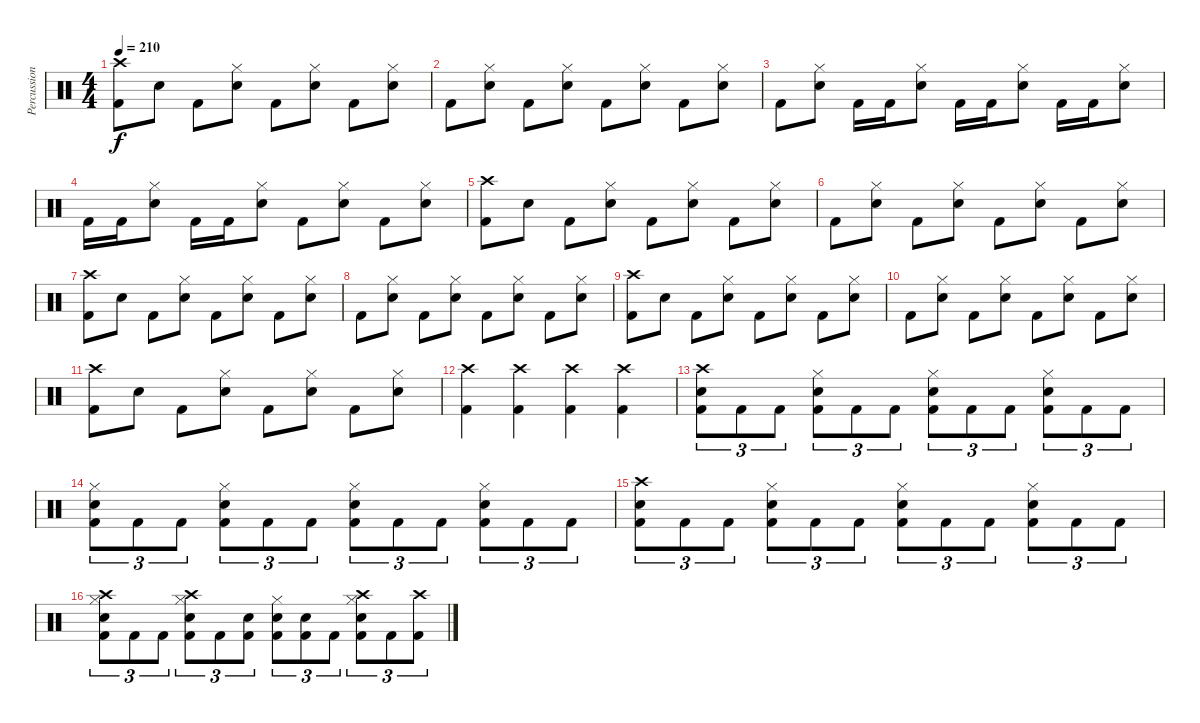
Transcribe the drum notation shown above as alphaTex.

\track ("Percussion" "Percussion") {instrument percussion}
\staff {score}
\articulation defaults
\ts (4 4)
\tempo 210
\clef neutral
\ks c
("Crash high (hit)" "Kick (hit) 2").8{dy f} "Electric Snare (hit)".8 "Kick (hit) 2".8 ("Hi-Hat (closed)" "Electric Snare (hit)").8 "Kick (hit) 2".8 ("Hi-Hat (closed)" "Electric Snare (hit)").8 "Kick (hit) 2".8 ("Hi-Hat (closed)" "Electric Snare (hit)").8 |
"Kick (hit) 2".8 ("Hi-Hat (closed)" "Electric Snare (hit)").8 "Kick (hit) 2".8 ("Hi-Hat (closed)" "Electric Snare (hit)").8 "Kick (hit) 2".8 ("Hi-Hat (closed)" "Electric Snare (hit)").8 "Kick (hit) 2".8 ("Hi-Hat (closed)" "Electric Snare (hit)").8 |
"Kick (hit) 2".8 ("Hi-Hat (closed)" "Electric Snare (hit)").8 "Kick (hit) 2".16 "Kick (hit) 2".16 ("Hi-Hat (closed)" "Electric Snare (hit)").8 "Kick (hit) 2".16 "Kick (hit) 2".16 ("Hi-Hat (closed)" "Electric Snare (hit)").8 "Kick (hit) 2".16 "Kick (hit) 2".16 ("Hi-Hat (closed)" "Electric Snare (hit)").8 |
"Kick (hit) 2".16 "Kick (hit) 2".16 ("Hi-Hat (closed)" "Electric Snare (hit)").8 "Kick (hit) 2".16 "Kick (hit) 2".16 ("Hi-Hat (closed)" "Electric Snare (hit)").8 "Kick (hit) 2".8 ("Hi-Hat (closed)" "Electric Snare (hit)").8 "Kick (hit) 2".8 ("Hi-Hat (closed)" "Electric Snare (hit)").8 |
("Crash high (hit)" "Kick (hit) 2").8 "Electric Snare (hit)".8 "Kick (hit) 2".8 ("Hi-Hat (closed)" "Electric Snare (hit)").8 "Kick (hit) 2".8 ("Hi-Hat (closed)" "Electric Snare (hit)").8 "Kick (hit) 2".8 ("Hi-Hat (closed)" "Electric Snare (hit)").8 |
"Kick (hit) 2".8 ("Hi-Hat (closed)" "Electric Snare (hit)").8 "Kick (hit) 2".8 ("Hi-Hat (closed)" "Electric Snare (hit)").8 "Kick (hit) 2".8 ("Hi-Hat (closed)" "Electric Snare (hit)").8 "Kick (hit) 2".8 ("Hi-Hat (closed)" "Electric Snare (hit)").8 |
("Crash high (hit)" "Kick (hit) 2").8 "Electric Snare (hit)".8 "Kick (hit) 2".8 ("Hi-Hat (closed)" "Electric Snare (hit)").8 "Kick (hit) 2".8 ("Hi-Hat (closed)" "Electric Snare (hit)").8 "Kick (hit) 2".8 ("Hi-Hat (closed)" "Electric Snare (hit)").8 |
"Kick (hit) 2".8 ("Hi-Hat (closed)" "Electric Snare (hit)").8 "Kick (hit) 2".8 ("Hi-Hat (closed)" "Electric Snare (hit)").8 "Kick (hit) 2".8 ("Hi-Hat (closed)" "Electric Snare (hit)").8 "Kick (hit) 2".8 ("Hi-Hat (closed)" "Electric Snare (hit)").8 |
("Crash high (hit)" "Kick (hit) 2").8 "Electric Snare (hit)".8 "Kick (hit) 2".8 ("Hi-Hat (closed)" "Electric Snare (hit)").8 "Kick (hit) 2".8 ("Hi-Hat (closed)" "Electric Snare (hit)").8 "Kick (hit) 2".8 ("Hi-Hat (closed)" "Electric Snare (hit)").8 |
"Kick (hit) 2".8 ("Hi-Hat (closed)" "Electric Snare (hit)").8 "Kick (hit) 2".8 ("Hi-Hat (closed)" "Electric Snare (hit)").8 "Kick (hit) 2".8 ("Hi-Hat (closed)" "Electric Snare (hit)").8 "Kick (hit) 2".8 ("Hi-Hat (closed)" "Electric Snare (hit)").8 |
("Crash high (hit)" "Kick (hit) 2").8 "Electric Snare (hit)".8 "Kick (hit) 2".8 ("Hi-Hat (closed)" "Electric Snare (hit)").8 "Kick (hit) 2".8 ("Hi-Hat (closed)" "Electric Snare (hit)").8 "Kick (hit) 2".8 ("Hi-Hat (closed)" "Electric Snare (hit)").8 |
("Crash high (hit)" "Kick (hit) 2").4 ("Crash high (hit)" "Kick (hit) 2").4 ("Crash high (hit)" "Kick (hit) 2").4 ("Crash high (hit)" "Kick (hit) 2").4 |
("Crash high (hit)" "Electric Snare (hit)" "Kick (hit) 2").8{tu (3 2)} "Kick (hit) 2".8{tu (3 2)} "Kick (hit) 2".8{tu (3 2)} ("Hi-Hat (closed)" "Electric Snare (hit)" "Kick (hit) 2").8{tu (3 2)} "Kick (hit) 2".8{tu (3 2)} "Kick (hit) 2".8{tu (3 2)} ("Hi-Hat (closed)" "Electric Snare (hit)" "Kick (hit) 2").8{tu (3 2)} "Kick (hit) 2".8{tu (3 2)} "Kick (hit) 2".8{tu (3 2)} ("Hi-Hat (closed)" "Electric Snare (hit)" "Kick (hit) 2").8{tu (3 2)} "Kick (hit) 2".8{tu (3 2)} "Kick (hit) 2".8{tu (3 2)} |
("Hi-Hat (closed)" "Electric Snare (hit)" "Kick (hit) 2").8{tu (3 2)} "Kick (hit) 2".8{tu (3 2)} "Kick (hit) 2".8{tu (3 2)} ("Hi-Hat (closed)" "Electric Snare (hit)" "Kick (hit) 2").8{tu (3 2)} "Kick (hit) 2".8{tu (3 2)} "Kick (hit) 2".8{tu (3 2)} ("Hi-Hat (closed)" "Electric Snare (hit)" "Kick (hit) 2").8{tu (3 2)} "Kick (hit) 2".8{tu (3 2)} "Kick (hit) 2".8{tu (3 2)} ("Hi-Hat (closed)" "Electric Snare (hit)" "Kick (hit) 2").8{tu (3 2)} "Kick (hit) 2".8{tu (3 2)} "Kick (hit) 2".8{tu (3 2)} |
("Crash high (hit)" "Electric Snare (hit)" "Kick (hit) 2").8{tu (3 2)} "Kick (hit) 2".8{tu (3 2)} "Kick (hit) 2".8{tu (3 2)} ("Hi-Hat (closed)" "Electric Snare (hit)" "Kick (hit) 2").8{tu (3 2)} "Kick (hit) 2".8{tu (3 2)} "Kick (hit) 2".8{tu (3 2)} ("Hi-Hat (closed)" "Electric Snare (hit)" "Kick (hit) 2").8{tu (3 2)} "Kick (hit) 2".8{tu (3 2)} "Kick (hit) 2".8{tu (3 2)} ("Hi-Hat (closed)" "Electric Snare (hit)" "Kick (hit) 2").8{tu (3 2)} "Kick (hit) 2".8{tu (3 2)} "Kick (hit) 2".8{tu (3 2)} |
("Crash high (hit)" "Hi-Hat (closed)" "Electric Snare (hit)" "Kick (hit) 2").8{tu (3 2)} "Kick (hit) 2".8{tu (3 2)} "Kick (hit) 2".8{tu (3 2)} ("Crash high (hit)" "Hi-Hat (closed)" "Electric Snare (hit)" "Kick (hit) 2").8{tu (3 2)} "Kick (hit) 2".8{tu (3 2)} ("Electric Snare (hit)" "Kick (hit) 2").8{tu (3 2)} ("Hi-Hat (closed)" "Electric Snare (hit)" "Kick (hit) 2").8{tu (3 2)} ("Electric Snare (hit)" "Kick (hit) 2").8{tu (3 2)} "Kick (hit) 2".8{tu (3 2)} ("Crash high (hit)" "Hi-Hat (closed)" "Electric Snare (hit)" "Kick (hit) 2").8{tu (3 2)} "Kick (hit) 2".8{tu (3 2)} ("Crash high (hit)" "Kick (hit) 2").8{tu (3 2)}
